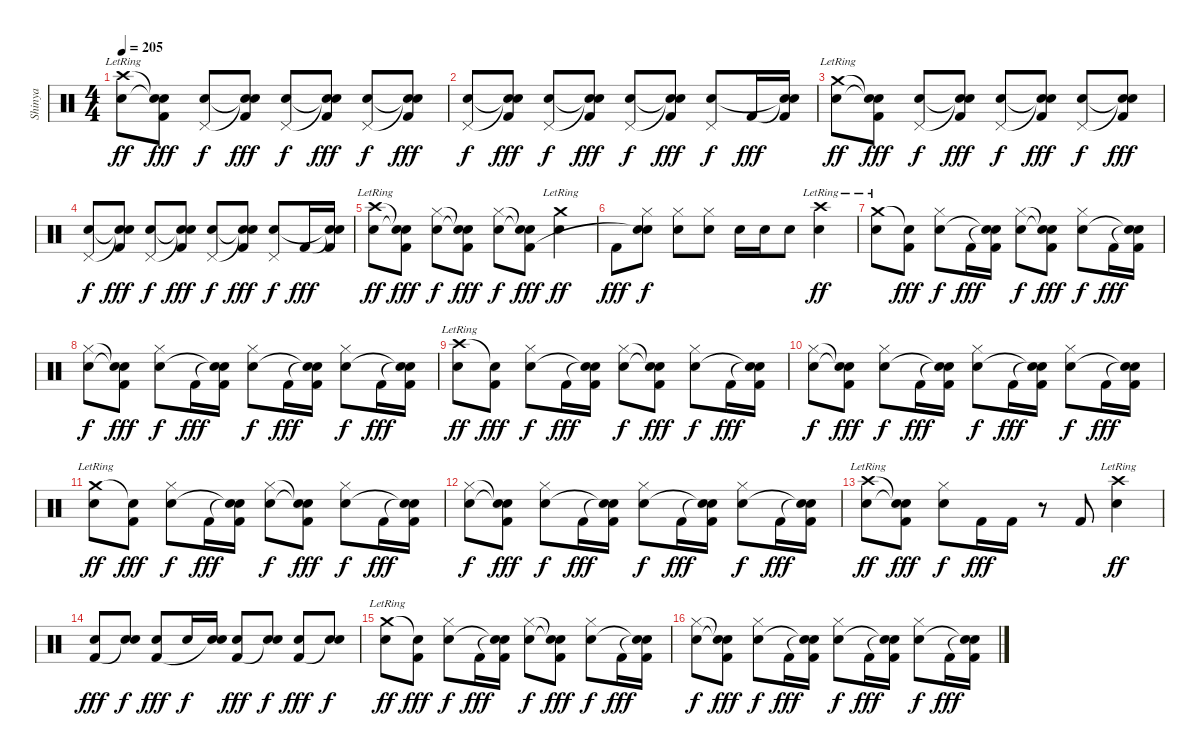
\track ("Shinya" "Shinya") {instrument percussion}
\staff {score}
\articulation defaults
\ts (4 4)
\tempo 205
\clef neutral
\ks c
("Crash high (hit)"{lr} "Electric Snare (hit)").8{dy ff} ("Snare (hit)"{t} "Snare (hit)"{t} "Kick (hit) 2").8{dy fff} ("Pedal Hi-Hat (hit)" "Electric Snare (hit)").8{dy f} ("Snare (hit)"{t} "Snare (hit)"{t} "Kick (hit) 2").8{dy fff} ("Pedal Hi-Hat (hit)" "Electric Snare (hit)").8{dy f} ("Snare (hit)"{t} "Snare (hit)"{t} "Kick (hit) 2").8{dy fff} ("Pedal Hi-Hat (hit)" "Electric Snare (hit)").8{dy f} ("Snare (hit)"{t} "Snare (hit)"{t} "Kick (hit) 2").8{dy fff} |
("Pedal Hi-Hat (hit)" "Electric Snare (hit)").8{dy f} ("Snare (hit)"{t} "Snare (hit)"{t} "Kick (hit) 2").8{dy fff} ("Pedal Hi-Hat (hit)" "Electric Snare (hit)").8{dy f} ("Snare (hit)"{t} "Snare (hit)"{t} "Kick (hit) 2").8{dy fff} ("Pedal Hi-Hat (hit)" "Electric Snare (hit)").8{dy f} ("Snare (hit)"{t} "Snare (hit)"{t} "Kick (hit) 2").8{dy fff} ("Pedal Hi-Hat (hit)" "Electric Snare (hit)").8{dy f} "Kick (hit) 2".16{dy fff} ("Snare (hit)"{t} "Snare (hit)"{t} "Kick (hit) 2").16 |
("Crash medium (hit)"{lr} "Electric Snare (hit)").8{dy ff} ("Snare (hit)"{t} "Snare (hit)"{t} "Kick (hit) 2").8{dy fff} ("Pedal Hi-Hat (hit)" "Electric Snare (hit)").8{dy f} ("Snare (hit)"{t} "Snare (hit)"{t} "Kick (hit) 2").8{dy fff} ("Pedal Hi-Hat (hit)" "Electric Snare (hit)").8{dy f} ("Snare (hit)"{t} "Snare (hit)"{t} "Kick (hit) 2").8{dy fff} ("Pedal Hi-Hat (hit)" "Electric Snare (hit)").8{dy f} ("Snare (hit)"{t} "Snare (hit)"{t} "Kick (hit) 2").8{dy fff} |
("Pedal Hi-Hat (hit)" "Electric Snare (hit)").8{dy f} ("Snare (hit)"{t} "Snare (hit)"{t} "Kick (hit) 2").8{dy fff} ("Pedal Hi-Hat (hit)" "Electric Snare (hit)").8{dy f} ("Snare (hit)"{t} "Snare (hit)"{t} "Kick (hit) 2").8{dy fff} ("Pedal Hi-Hat (hit)" "Electric Snare (hit)").8{dy f} ("Snare (hit)"{t} "Snare (hit)"{t} "Kick (hit) 2").8{dy fff} ("Pedal Hi-Hat (hit)" "Electric Snare (hit)").8{dy f} "Kick (hit) 2".16{dy fff} ("Snare (hit)"{t} "Snare (hit)"{t} "Kick (hit) 2").16 |
("Crash high (hit)"{lr} "Electric Snare (hit)").8{dy ff} ("Snare (hit)"{t} "Snare (hit)"{t} "Kick (hit) 2").8{dy fff} ("Hi-Hat (closed)" "Electric Snare (hit)").8{dy f} ("Snare (hit)"{t} "Snare (hit)"{t} "Kick (hit) 2").8{dy fff} ("Hi-Hat (closed)" "Electric Snare (hit)").8{dy f} ("Snare (hit)"{t} "Snare (hit)"{t} "Kick (hit) 2").8{dy fff} ("Crash medium (hit)"{lr} "Electric Snare (hit)").4{dy ff} |
"Kick (hit) 2".8{dy fff} ("Hi-Hat (closed)" "Electric Snare (hit)" "Snare (hit)"{t}).8{dy f} ("Hi-Hat (closed)" "Electric Snare (hit)").8 ("Hi-Hat (closed)" "Electric Snare (hit)").8 "Electric Snare (hit)".16 "Electric Snare (hit)".16 "Electric Snare (hit)".8 ("Crash high (hit)"{lr} "Electric Snare (hit)").4{dy ff} |
("Crash medium (hit)"{lr} "Electric Snare (hit)").8 ("Snare (hit)"{t} "Kick (hit) 2").8{dy fff} ("Hi-Hat (closed)" "Electric Snare (hit)").8{dy f} "Kick (hit) 2".16{dy fff} ("Snare (hit)"{t} "Snare (hit)"{t} "Kick (hit) 2").16 ("Hi-Hat (closed)" "Electric Snare (hit)").8{dy f} ("Snare (hit)"{t} "Snare (hit)"{t} "Kick (hit) 2").8{dy fff} ("Hi-Hat (closed)" "Electric Snare (hit)").8{dy f} "Kick (hit) 2".16{dy fff} ("Snare (hit)"{t} "Snare (hit)"{t} "Kick (hit) 2").16 |
("Hi-Hat (closed)" "Electric Snare (hit)").8{dy f} ("Snare (hit)"{t} "Snare (hit)"{t} "Kick (hit) 2").8{dy fff} ("Hi-Hat (closed)" "Electric Snare (hit)").8{dy f} "Kick (hit) 2".16{dy fff} ("Snare (hit)"{t} "Snare (hit)"{t} "Kick (hit) 2").16 ("Hi-Hat (closed)" "Electric Snare (hit)").8{dy f} "Kick (hit) 2".16{dy fff} ("Snare (hit)"{t} "Snare (hit)"{t} "Kick (hit) 2").16 ("Hi-Hat (closed)" "Electric Snare (hit)").8{dy f} "Kick (hit) 2".16{dy fff} ("Snare (hit)"{t} "Snare (hit)"{t} "Kick (hit) 2").16 |
("Crash high (hit)"{lr} "Electric Snare (hit)").8{dy ff} ("Snare (hit)"{t} "Kick (hit) 2").8{dy fff} ("Hi-Hat (closed)" "Electric Snare (hit)").8{dy f} "Kick (hit) 2".16{dy fff} ("Snare (hit)"{t} "Snare (hit)"{t} "Kick (hit) 2").16 ("Hi-Hat (closed)" "Electric Snare (hit)").8{dy f} ("Snare (hit)"{t} "Snare (hit)"{t} "Kick (hit) 2").8{dy fff} ("Hi-Hat (closed)" "Electric Snare (hit)").8{dy f} "Kick (hit) 2".16{dy fff} ("Snare (hit)"{t} "Snare (hit)"{t} "Kick (hit) 2").16 |
("Hi-Hat (closed)" "Electric Snare (hit)").8{dy f} ("Snare (hit)"{t} "Snare (hit)"{t} "Kick (hit) 2").8{dy fff} ("Hi-Hat (closed)" "Electric Snare (hit)").8{dy f} "Kick (hit) 2".16{dy fff} ("Snare (hit)"{t} "Snare (hit)"{t} "Kick (hit) 2").16 ("Hi-Hat (closed)" "Electric Snare (hit)").8{dy f} "Kick (hit) 2".16{dy fff} ("Snare (hit)"{t} "Snare (hit)"{t} "Kick (hit) 2").16 ("Hi-Hat (closed)" "Electric Snare (hit)").8{dy f} "Kick (hit) 2".16{dy fff} ("Snare (hit)"{t} "Snare (hit)"{t} "Kick (hit) 2").16 |
("Crash medium (hit)"{lr} "Electric Snare (hit)").8{dy ff} ("Snare (hit)"{t} "Kick (hit) 2").8{dy fff} ("Hi-Hat (closed)" "Electric Snare (hit)").8{dy f} "Kick (hit) 2".16{dy fff} ("Snare (hit)"{t} "Snare (hit)"{t} "Kick (hit) 2").16 ("Hi-Hat (closed)" "Electric Snare (hit)").8{dy f} ("Snare (hit)"{t} "Snare (hit)"{t} "Kick (hit) 2").8{dy fff} ("Hi-Hat (closed)" "Electric Snare (hit)").8{dy f} "Kick (hit) 2".16{dy fff} ("Snare (hit)"{t} "Snare (hit)"{t} "Kick (hit) 2").16 |
("Hi-Hat (closed)" "Electric Snare (hit)").8{dy f} ("Snare (hit)"{t} "Snare (hit)"{t} "Kick (hit) 2").8{dy fff} ("Hi-Hat (closed)" "Electric Snare (hit)").8{dy f} "Kick (hit) 2".16{dy fff} ("Snare (hit)"{t} "Snare (hit)"{t} "Kick (hit) 2").16 ("Hi-Hat (closed)" "Electric Snare (hit)").8{dy f} "Kick (hit) 2".16{dy fff} ("Snare (hit)"{t} "Snare (hit)"{t} "Kick (hit) 2").16 ("Hi-Hat (closed)" "Electric Snare (hit)").8{dy f} "Kick (hit) 2".16{dy fff} ("Snare (hit)"{t} "Snare (hit)"{t} "Kick (hit) 2").16 |
("Crash high (hit)"{lr} "Electric Snare (hit)").8{dy ff} ("Snare (hit)"{t} "Snare (hit)"{t} "Kick (hit) 2").8{dy fff} ("Hi-Hat (closed)" "Electric Snare (hit)").8{dy f} "Kick (hit) 2".16{dy fff} "Kick (hit) 2".16 r.8 "Kick (hit) 2".8 ("Crash high (hit)"{lr} "Electric Snare (hit)").4{dy ff} |
("Electric Snare (hit)" "Kick (hit) 2").8{dy fff} ("Electric Snare (hit)" "Snare (hit)"{t}).8{dy f} ("Electric Snare (hit)" "Kick (hit) 2").8{dy fff} "Electric Snare (hit)".16{dy f} ("Electric Snare (hit)" "Snare (hit)"{t}).16 ("Electric Snare (hit)" "Kick (hit) 2").8{dy fff} ("Electric Snare (hit)" "Snare (hit)"{t}).8{dy f} ("Electric Snare (hit)" "Kick (hit) 2").8{dy fff} ("Electric Snare (hit)" "Snare (hit)"{t}).8{dy f} |
("Crash medium (hit)"{lr} "Electric Snare (hit)").8{dy ff} ("Snare (hit)"{t} "Kick (hit) 2").8{dy fff} ("Hi-Hat (closed)" "Electric Snare (hit)").8{dy f} "Kick (hit) 2".16{dy fff} ("Snare (hit)"{t} "Snare (hit)"{t} "Kick (hit) 2").16 ("Hi-Hat (closed)" "Electric Snare (hit)").8{dy f} ("Snare (hit)"{t} "Snare (hit)"{t} "Kick (hit) 2").8{dy fff} ("Hi-Hat (closed)" "Electric Snare (hit)").8{dy f} "Kick (hit) 2".16{dy fff} ("Snare (hit)"{t} "Snare (hit)"{t} "Kick (hit) 2").16 |
("Hi-Hat (closed)" "Electric Snare (hit)").8{dy f} ("Snare (hit)"{t} "Snare (hit)"{t} "Kick (hit) 2").8{dy fff} ("Hi-Hat (closed)" "Electric Snare (hit)").8{dy f} "Kick (hit) 2".16{dy fff} ("Snare (hit)"{t} "Snare (hit)"{t} "Kick (hit) 2").16 ("Hi-Hat (closed)" "Electric Snare (hit)").8{dy f} "Kick (hit) 2".16{dy fff} ("Snare (hit)"{t} "Snare (hit)"{t} "Kick (hit) 2").16 ("Hi-Hat (closed)" "Electric Snare (hit)").8{dy f} "Kick (hit) 2".16{dy fff} ("Snare (hit)"{t} "Snare (hit)"{t} "Kick (hit) 2").16
